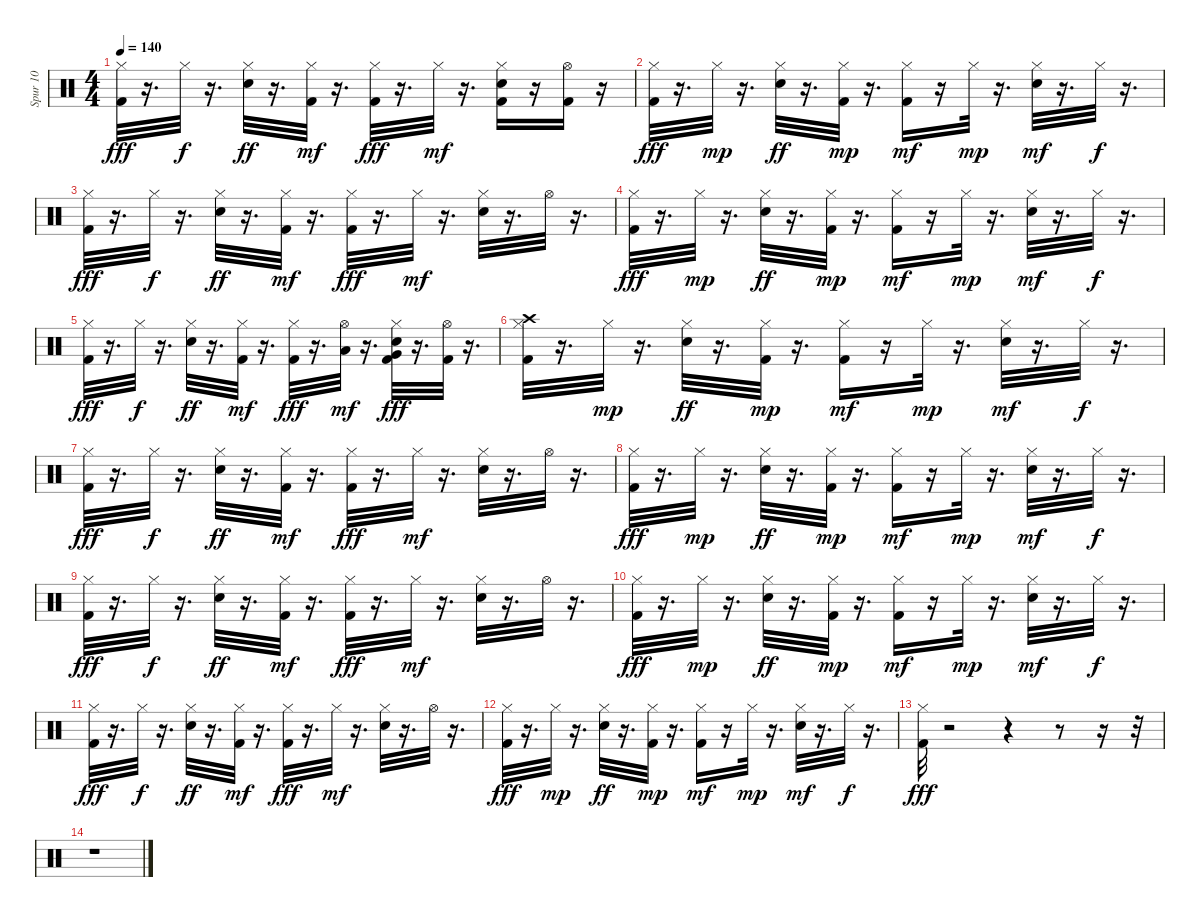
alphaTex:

\track ("Spur 10" "Spur 10") {instrument percussion}
\staff {score}
\articulation defaults
\ts (4 4)
\tempo 140
\clef neutral
\ks c
("Hi-Hat (closed)" "Kick (hit) 2").32{dy fff} r.16{d} "Hi-Hat (closed)".32{dy f} r.16{d} ("Hi-Hat (closed)" "Snare (hit) 2").32{dy ff} r.16{d} ("Kick (hit) 2" "Hi-Hat (closed)").32{dy mf} r.16{d} ("Hi-Hat (closed)" "Kick (hit) 2").32{dy fff} r.16{d} "Hi-Hat (closed)".32{dy mf} r.16{d} ("Kick (hit) 2" "Snare (hit) 2" "Hi-Hat (closed)").16 r.16 ("Kick (hit) 2" "Hi-Hat (open)").16 r.16 |
("Hi-Hat (closed)" "Kick (hit) 2").32{dy fff} r.16{d} "Hi-Hat (closed)".32{dy mp} r.16{d} ("Hi-Hat (closed)" "Snare (hit) 2").32{dy ff} r.16{d} ("Kick (hit) 2" "Hi-Hat (closed)").32{dy mp} r.16{d} ("Kick (hit) 2" "Hi-Hat (closed)").16{dy mf} r.16 "Hi-Hat (closed)".32{dy mp} r.16{d} ("Snare (hit) 2" "Hi-Hat (closed)").32{dy mf} r.16{d} "Hi-Hat (closed)".32{dy f} r.16{d} |
("Hi-Hat (closed)" "Kick (hit) 2").32{dy fff} r.16{d} "Hi-Hat (closed)".32{dy f} r.16{d} ("Hi-Hat (closed)" "Snare (hit) 2").32{dy ff} r.16{d} ("Kick (hit) 2" "Hi-Hat (closed)").32{dy mf} r.16{d} ("Hi-Hat (closed)" "Kick (hit) 2").32{dy fff} r.16{d} "Hi-Hat (closed)".32{dy mf} r.16{d} ("Snare (hit) 2" "Hi-Hat (closed)").32 r.16{d} "Hi-Hat (open)".32 r.16{d} |
("Hi-Hat (closed)" "Kick (hit) 2").32{dy fff} r.16{d} "Hi-Hat (closed)".32{dy mp} r.16{d} ("Hi-Hat (closed)" "Snare (hit) 2").32{dy ff} r.16{d} ("Kick (hit) 2" "Hi-Hat (closed)").32{dy mp} r.16{d} ("Kick (hit) 2" "Hi-Hat (closed)").16{dy mf} r.16 "Hi-Hat (closed)".32{dy mp} r.16{d} ("Snare (hit) 2" "Hi-Hat (closed)").32{dy mf} r.16{d} "Hi-Hat (closed)".32{dy f} r.16{d} |
("Hi-Hat (closed)" "Kick (hit) 2").32{dy fff} r.16{d} "Hi-Hat (closed)".32{dy f} r.16{d} ("Hi-Hat (closed)" "Snare (hit) 2").32{dy ff} r.16{d} ("Kick (hit) 2" "Hi-Hat (closed)").32{dy mf} r.16{d} ("Hi-Hat (closed)" "Kick (hit) 2").32{dy fff} r.16{d} ("Low Tom (hit)" "Hi-Hat (open)").32{dy mf} r.16{d} ("Very Low Tom (hit)" "Snare (hit) 2" "Hi-Hat (closed)" "Kick (hit) 2").32{dy fff} r.16{d} ("Hi-Hat (open)" "Kick (hit) 2").32 r.16{d} |
("Crash high (hit)" "Hi-Hat (closed)" "Kick (hit) 2").32 r.16{d} "Hi-Hat (closed)".32{dy mp} r.16{d} ("Hi-Hat (closed)" "Snare (hit) 2").32{dy ff} r.16{d} ("Kick (hit) 2" "Hi-Hat (closed)").32{dy mp} r.16{d} ("Kick (hit) 2" "Hi-Hat (closed)").16{dy mf} r.16 "Hi-Hat (closed)".32{dy mp} r.16{d} ("Snare (hit) 2" "Hi-Hat (closed)").32{dy mf} r.16{d} "Hi-Hat (closed)".32{dy f} r.16{d} |
("Hi-Hat (closed)" "Kick (hit) 2").32{dy fff} r.16{d} "Hi-Hat (closed)".32{dy f} r.16{d} ("Hi-Hat (closed)" "Snare (hit) 2").32{dy ff} r.16{d} ("Kick (hit) 2" "Hi-Hat (closed)").32{dy mf} r.16{d} ("Hi-Hat (closed)" "Kick (hit) 2").32{dy fff} r.16{d} "Hi-Hat (closed)".32{dy mf} r.16{d} ("Snare (hit) 2" "Hi-Hat (closed)").32 r.16{d} "Hi-Hat (open)".32 r.16{d} |
("Hi-Hat (closed)" "Kick (hit) 2").32{dy fff} r.16{d} "Hi-Hat (closed)".32{dy mp} r.16{d} ("Hi-Hat (closed)" "Snare (hit) 2").32{dy ff} r.16{d} ("Kick (hit) 2" "Hi-Hat (closed)").32{dy mp} r.16{d} ("Kick (hit) 2" "Hi-Hat (closed)").16{dy mf} r.16 "Hi-Hat (closed)".32{dy mp} r.16{d} ("Snare (hit) 2" "Hi-Hat (closed)").32{dy mf} r.16{d} "Hi-Hat (closed)".32{dy f} r.16{d} |
("Hi-Hat (closed)" "Kick (hit) 2").32{dy fff} r.16{d} "Hi-Hat (closed)".32{dy f} r.16{d} ("Hi-Hat (closed)" "Snare (hit) 2").32{dy ff} r.16{d} ("Kick (hit) 2" "Hi-Hat (closed)").32{dy mf} r.16{d} ("Hi-Hat (closed)" "Kick (hit) 2").32{dy fff} r.16{d} "Hi-Hat (closed)".32{dy mf} r.16{d} ("Snare (hit) 2" "Hi-Hat (closed)").32 r.16{d} "Hi-Hat (open)".32 r.16{d} |
("Hi-Hat (closed)" "Kick (hit) 2").32{dy fff} r.16{d} "Hi-Hat (closed)".32{dy mp} r.16{d} ("Hi-Hat (closed)" "Snare (hit) 2").32{dy ff} r.16{d} ("Kick (hit) 2" "Hi-Hat (closed)").32{dy mp} r.16{d} ("Kick (hit) 2" "Hi-Hat (closed)").16{dy mf} r.16 "Hi-Hat (closed)".32{dy mp} r.16{d} ("Snare (hit) 2" "Hi-Hat (closed)").32{dy mf} r.16{d} "Hi-Hat (closed)".32{dy f} r.16{d} |
("Hi-Hat (closed)" "Kick (hit) 2").32{dy fff} r.16{d} "Hi-Hat (closed)".32{dy f} r.16{d} ("Hi-Hat (closed)" "Snare (hit) 2").32{dy ff} r.16{d} ("Kick (hit) 2" "Hi-Hat (closed)").32{dy mf} r.16{d} ("Hi-Hat (closed)" "Kick (hit) 2").32{dy fff} r.16{d} "Hi-Hat (closed)".32{dy mf} r.16{d} ("Snare (hit) 2" "Hi-Hat (closed)").32 r.16{d} "Hi-Hat (open)".32 r.16{d} |
("Hi-Hat (closed)" "Kick (hit) 2").32{dy fff} r.16{d} "Hi-Hat (closed)".32{dy mp} r.16{d} ("Hi-Hat (closed)" "Snare (hit) 2").32{dy ff} r.16{d} ("Kick (hit) 2" "Hi-Hat (closed)").32{dy mp} r.16{d} ("Kick (hit) 2" "Hi-Hat (closed)").16{dy mf} r.16 "Hi-Hat (closed)".32{dy mp} r.16{d} ("Snare (hit) 2" "Hi-Hat (closed)").32{dy mf} r.16{d} "Hi-Hat (closed)".32{dy f} r.16{d} |
("Hi-Hat (closed)" "Kick (hit) 2").32{dy fff} r.2 r.4 r.8 r.16 r.32 |
r.1
